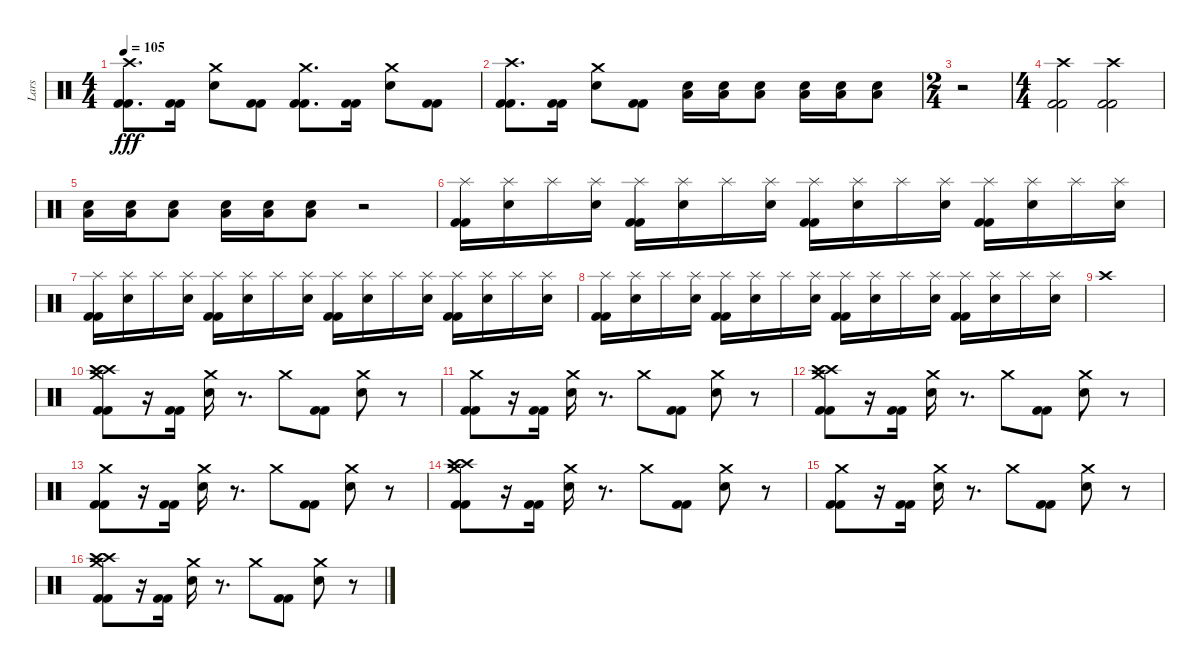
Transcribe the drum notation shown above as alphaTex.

\track ("Lars" "Lars") {instrument percussion}
\staff {score}
\articulation defaults
\ts (4 4)
\tempo 105
\clef neutral
\ks c
("Crash high (hit)" "Kick (hit) 2" "Kick (hit) 2").8{d dy fff} ("Kick (hit) 2" "Kick (hit) 2").16 ("Crash medium (hit)" "Electric Snare (hit)").8 ("Kick (hit) 2" "Kick (hit) 2").8 ("Crash medium (hit)" "Kick (hit) 2" "Kick (hit) 2").8{d} ("Kick (hit) 2" "Kick (hit) 2").16 ("Crash medium (hit)" "Electric Snare (hit)").8 ("Kick (hit) 2" "Kick (hit) 2").8 |
("Crash high (hit)" "Kick (hit) 2" "Kick (hit) 2").8{d} ("Kick (hit) 2" "Kick (hit) 2").16 ("Crash medium (hit)" "Electric Snare (hit)").8 ("Kick (hit) 2" "Kick (hit) 2").8 ("Electric Snare (hit)" "Low Floor Tom (hit)").16 ("Electric Snare (hit)" "Low Floor Tom (hit)").16 ("Electric Snare (hit)" "Low Floor Tom (hit)").8 ("Electric Snare (hit)" "Low Floor Tom (hit)").16 ("Electric Snare (hit)" "Low Floor Tom (hit)").16 ("Electric Snare (hit)" "Low Floor Tom (hit)").8 |
\ts (2 4)
r.2 |
\ts (4 4)
("Crash high (hit)" "Kick (hit) 2" "Kick (hit) 2").2 ("Crash high (hit)" "Kick (hit) 2" "Kick (hit) 2").2 |
("Electric Snare (hit)" "Low Floor Tom (hit)").16 ("Electric Snare (hit)" "Low Floor Tom (hit)").16 ("Electric Snare (hit)" "Low Floor Tom (hit)").8 ("Electric Snare (hit)" "Low Floor Tom (hit)").16 ("Electric Snare (hit)" "Low Floor Tom (hit)").16 ("Electric Snare (hit)" "Low Floor Tom (hit)").8 r.2 |
("Splash (hit)" "Kick (hit) 2" "Kick (hit) 2").16 ("Splash (hit)" "Electric Snare (hit)").16 "Splash (hit)".16 ("Splash (hit)" "Electric Snare (hit)").16 ("Splash (hit)" "Kick (hit) 2" "Kick (hit) 2").16 ("Splash (hit)" "Electric Snare (hit)").16 "Splash (hit)".16 ("Splash (hit)" "Electric Snare (hit)").16 ("Splash (hit)" "Kick (hit) 2" "Kick (hit) 2").16 ("Splash (hit)" "Electric Snare (hit)").16 "Splash (hit)".16 ("Splash (hit)" "Electric Snare (hit)").16 ("Splash (hit)" "Kick (hit) 2" "Kick (hit) 2").16 ("Splash (hit)" "Electric Snare (hit)").16 "Splash (hit)".16 ("Splash (hit)" "Electric Snare (hit)").16 |
("Splash (hit)" "Kick (hit) 2" "Kick (hit) 2").16 ("Splash (hit)" "Electric Snare (hit)").16 "Splash (hit)".16 ("Splash (hit)" "Electric Snare (hit)").16 ("Splash (hit)" "Kick (hit) 2" "Kick (hit) 2").16 ("Splash (hit)" "Electric Snare (hit)").16 "Splash (hit)".16 ("Splash (hit)" "Electric Snare (hit)").16 ("Splash (hit)" "Kick (hit) 2" "Kick (hit) 2").16 ("Splash (hit)" "Electric Snare (hit)").16 "Splash (hit)".16 ("Splash (hit)" "Electric Snare (hit)").16 ("Splash (hit)" "Kick (hit) 2" "Kick (hit) 2").16 ("Splash (hit)" "Electric Snare (hit)").16 "Splash (hit)".16 ("Splash (hit)" "Electric Snare (hit)").16 |
("Splash (hit)" "Kick (hit) 2" "Kick (hit) 2").16 ("Splash (hit)" "Electric Snare (hit)").16 "Splash (hit)".16 ("Splash (hit)" "Electric Snare (hit)").16 ("Splash (hit)" "Kick (hit) 2" "Kick (hit) 2").16 ("Splash (hit)" "Electric Snare (hit)").16 "Splash (hit)".16 ("Splash (hit)" "Electric Snare (hit)").16 ("Splash (hit)" "Kick (hit) 2" "Kick (hit) 2").16 ("Splash (hit)" "Electric Snare (hit)").16 "Splash (hit)".16 ("Splash (hit)" "Electric Snare (hit)").16 ("Splash (hit)" "Kick (hit) 2" "Kick (hit) 2").16 ("Splash (hit)" "Electric Snare (hit)").16 "Splash (hit)".16 ("Splash (hit)" "Electric Snare (hit)").16 |
"Crash high (hit)".1 |
("Crash high (hit)" "Crash high (hit)" "Crash medium (hit)" "Kick (hit) 2" "Kick (hit) 2").8 r.16 ("Kick (hit) 2" "Kick (hit) 2").16 ("Crash medium (hit)" "Electric Snare (hit)").16 r.8{d} "Crash medium (hit)".8 ("Kick (hit) 2" "Kick (hit) 2").8 ("Crash medium (hit)" "Electric Snare (hit)").8 r.8 |
("Crash medium (hit)" "Kick (hit) 2" "Kick (hit) 2").8 r.16 ("Kick (hit) 2" "Kick (hit) 2").16 ("Crash medium (hit)" "Electric Snare (hit)").16 r.8{d} "Crash medium (hit)".8 ("Kick (hit) 2" "Kick (hit) 2").8 ("Crash medium (hit)" "Electric Snare (hit)").8 r.8 |
("Crash high (hit)" "Crash high (hit)" "Crash medium (hit)" "Kick (hit) 2" "Kick (hit) 2").8 r.16 ("Kick (hit) 2" "Kick (hit) 2").16 ("Crash medium (hit)" "Electric Snare (hit)").16 r.8{d} "Crash medium (hit)".8 ("Kick (hit) 2" "Kick (hit) 2").8 ("Crash medium (hit)" "Electric Snare (hit)").8 r.8 |
("Crash medium (hit)" "Kick (hit) 2" "Kick (hit) 2").8 r.16 ("Kick (hit) 2" "Kick (hit) 2").16 ("Crash medium (hit)" "Electric Snare (hit)").16 r.8{d} "Crash medium (hit)".8 ("Kick (hit) 2" "Kick (hit) 2").8 ("Crash medium (hit)" "Electric Snare (hit)").8 r.8 |
("Crash high (hit)" "Crash high (hit)" "Crash medium (hit)" "Kick (hit) 2" "Kick (hit) 2").8 r.16 ("Kick (hit) 2" "Kick (hit) 2").16 ("Crash medium (hit)" "Electric Snare (hit)").16 r.8{d} "Crash medium (hit)".8 ("Kick (hit) 2" "Kick (hit) 2").8 ("Crash medium (hit)" "Electric Snare (hit)").8 r.8 |
("Crash medium (hit)" "Kick (hit) 2" "Kick (hit) 2").8 r.16 ("Kick (hit) 2" "Kick (hit) 2").16 ("Crash medium (hit)" "Electric Snare (hit)").16 r.8{d} "Crash medium (hit)".8 ("Kick (hit) 2" "Kick (hit) 2").8 ("Crash medium (hit)" "Electric Snare (hit)").8 r.8 |
("Crash high (hit)" "Crash high (hit)" "Crash medium (hit)" "Kick (hit) 2" "Kick (hit) 2").8 r.16 ("Kick (hit) 2" "Kick (hit) 2").16 ("Crash medium (hit)" "Electric Snare (hit)").16 r.8{d} "Crash medium (hit)".8 ("Kick (hit) 2" "Kick (hit) 2").8 ("Crash medium (hit)" "Electric Snare (hit)").8 r.8
